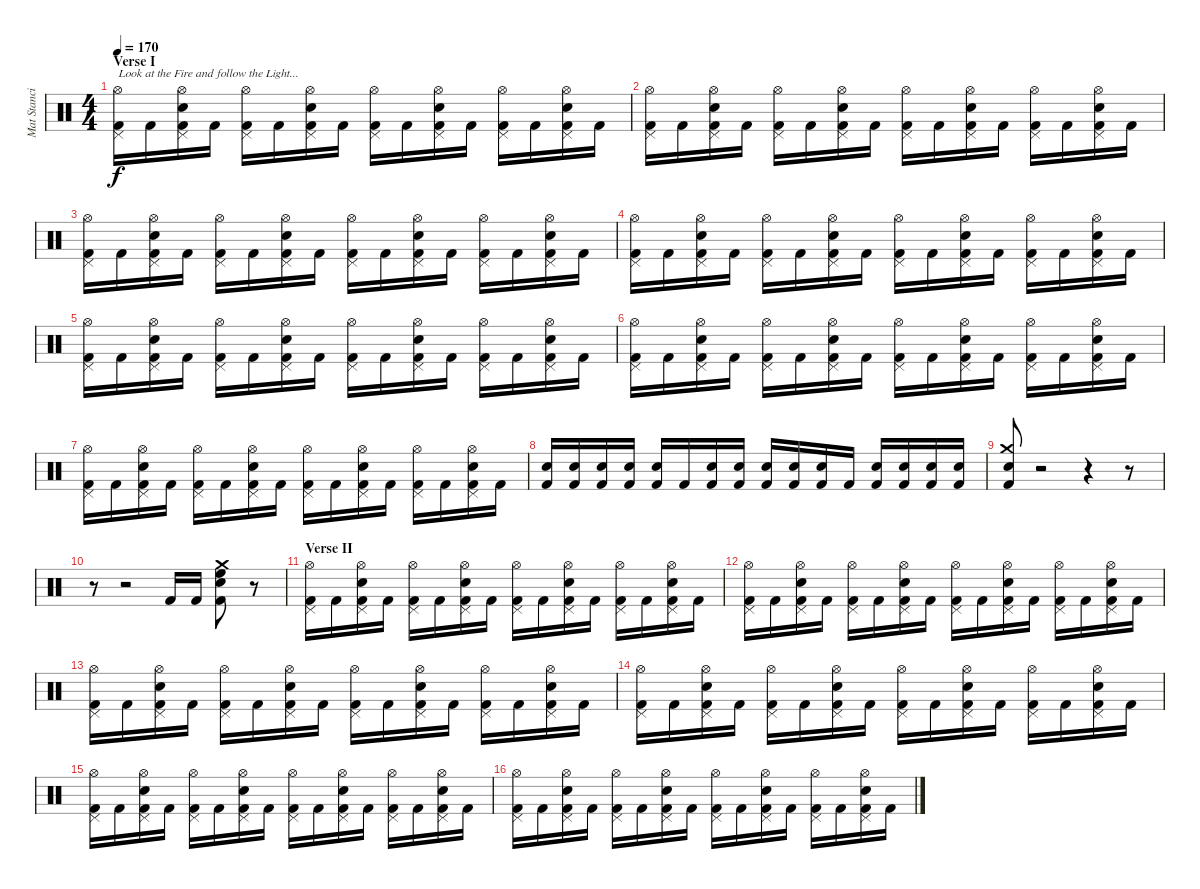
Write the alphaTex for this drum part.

\track ("Mat Stancioiu" "Mat Stanci") {instrument percussion}
\staff {score}
\articulation defaults
\ts (4 4)
\section ("" "Verse I")
\tempo 170
\clef neutral
\ks c
("Hi-Hat (open)" "Kick (hit) 2" "Pedal Hi-Hat (hit)").16{txt "Look at the Fire and follow the Light..." dy f} "Kick (hit) 2".16 ("Electric Snare (hit)" "Hi-Hat (open)" "Kick (hit) 2" "Pedal Hi-Hat (hit)").16 "Kick (hit) 2".16 ("Hi-Hat (open)" "Kick (hit) 2" "Pedal Hi-Hat (hit)").16 "Kick (hit) 2".16 ("Electric Snare (hit)" "Hi-Hat (open)" "Kick (hit) 2" "Pedal Hi-Hat (hit)").16 "Kick (hit) 2".16 ("Hi-Hat (open)" "Kick (hit) 2" "Pedal Hi-Hat (hit)").16 "Kick (hit) 2".16 ("Electric Snare (hit)" "Hi-Hat (open)" "Kick (hit) 2" "Pedal Hi-Hat (hit)").16 "Kick (hit) 2".16 ("Hi-Hat (open)" "Kick (hit) 2" "Pedal Hi-Hat (hit)").16 "Kick (hit) 2".16 ("Electric Snare (hit)" "Hi-Hat (open)" "Kick (hit) 2" "Pedal Hi-Hat (hit)").16 "Kick (hit) 2".16 |
("Hi-Hat (open)" "Kick (hit) 2" "Pedal Hi-Hat (hit)").16 "Kick (hit) 2".16 ("Electric Snare (hit)" "Hi-Hat (open)" "Kick (hit) 2" "Pedal Hi-Hat (hit)").16 "Kick (hit) 2".16 ("Hi-Hat (open)" "Kick (hit) 2" "Pedal Hi-Hat (hit)").16 "Kick (hit) 2".16 ("Electric Snare (hit)" "Hi-Hat (open)" "Kick (hit) 2" "Pedal Hi-Hat (hit)").16 "Kick (hit) 2".16 ("Hi-Hat (open)" "Kick (hit) 2" "Pedal Hi-Hat (hit)").16 "Kick (hit) 2".16 ("Electric Snare (hit)" "Hi-Hat (open)" "Kick (hit) 2" "Pedal Hi-Hat (hit)").16 "Kick (hit) 2".16 ("Hi-Hat (open)" "Kick (hit) 2" "Pedal Hi-Hat (hit)").16 "Kick (hit) 2".16 ("Electric Snare (hit)" "Hi-Hat (open)" "Kick (hit) 2" "Pedal Hi-Hat (hit)").16 "Kick (hit) 2".16 |
("Hi-Hat (open)" "Kick (hit) 2" "Pedal Hi-Hat (hit)").16 "Kick (hit) 2".16 ("Electric Snare (hit)" "Hi-Hat (open)" "Kick (hit) 2" "Pedal Hi-Hat (hit)").16 "Kick (hit) 2".16 ("Hi-Hat (open)" "Kick (hit) 2" "Pedal Hi-Hat (hit)").16 "Kick (hit) 2".16 ("Electric Snare (hit)" "Hi-Hat (open)" "Kick (hit) 2" "Pedal Hi-Hat (hit)").16 "Kick (hit) 2".16 ("Hi-Hat (open)" "Kick (hit) 2" "Pedal Hi-Hat (hit)").16 "Kick (hit) 2".16 ("Electric Snare (hit)" "Hi-Hat (open)" "Kick (hit) 2" "Pedal Hi-Hat (hit)").16 "Kick (hit) 2".16 ("Hi-Hat (open)" "Kick (hit) 2" "Pedal Hi-Hat (hit)").16 "Kick (hit) 2".16 ("Electric Snare (hit)" "Hi-Hat (open)" "Kick (hit) 2" "Pedal Hi-Hat (hit)").16 "Kick (hit) 2".16 |
("Hi-Hat (open)" "Kick (hit) 2" "Pedal Hi-Hat (hit)").16 "Kick (hit) 2".16 ("Electric Snare (hit)" "Hi-Hat (open)" "Kick (hit) 2" "Pedal Hi-Hat (hit)").16 "Kick (hit) 2".16 ("Hi-Hat (open)" "Kick (hit) 2" "Pedal Hi-Hat (hit)").16 "Kick (hit) 2".16 ("Electric Snare (hit)" "Hi-Hat (open)" "Kick (hit) 2" "Pedal Hi-Hat (hit)").16 "Kick (hit) 2".16 ("Hi-Hat (open)" "Kick (hit) 2" "Pedal Hi-Hat (hit)").16 "Kick (hit) 2".16 ("Electric Snare (hit)" "Hi-Hat (open)" "Kick (hit) 2" "Pedal Hi-Hat (hit)").16 "Kick (hit) 2".16 ("Hi-Hat (open)" "Kick (hit) 2" "Pedal Hi-Hat (hit)").16 "Kick (hit) 2".16 ("Electric Snare (hit)" "Hi-Hat (open)" "Kick (hit) 2" "Pedal Hi-Hat (hit)").16 "Kick (hit) 2".16 |
("Hi-Hat (open)" "Kick (hit) 2" "Pedal Hi-Hat (hit)").16 "Kick (hit) 2".16 ("Electric Snare (hit)" "Hi-Hat (open)" "Kick (hit) 2" "Pedal Hi-Hat (hit)").16 "Kick (hit) 2".16 ("Hi-Hat (open)" "Kick (hit) 2" "Pedal Hi-Hat (hit)").16 "Kick (hit) 2".16 ("Electric Snare (hit)" "Hi-Hat (open)" "Kick (hit) 2" "Pedal Hi-Hat (hit)").16 "Kick (hit) 2".16 ("Hi-Hat (open)" "Kick (hit) 2" "Pedal Hi-Hat (hit)").16 "Kick (hit) 2".16 ("Electric Snare (hit)" "Hi-Hat (open)" "Kick (hit) 2" "Pedal Hi-Hat (hit)").16 "Kick (hit) 2".16 ("Hi-Hat (open)" "Kick (hit) 2" "Pedal Hi-Hat (hit)").16 "Kick (hit) 2".16 ("Electric Snare (hit)" "Hi-Hat (open)" "Kick (hit) 2" "Pedal Hi-Hat (hit)").16 "Kick (hit) 2".16 |
("Hi-Hat (open)" "Kick (hit) 2" "Pedal Hi-Hat (hit)").16 "Kick (hit) 2".16 ("Electric Snare (hit)" "Hi-Hat (open)" "Kick (hit) 2" "Pedal Hi-Hat (hit)").16 "Kick (hit) 2".16 ("Hi-Hat (open)" "Kick (hit) 2" "Pedal Hi-Hat (hit)").16 "Kick (hit) 2".16 ("Electric Snare (hit)" "Hi-Hat (open)" "Kick (hit) 2" "Pedal Hi-Hat (hit)").16 "Kick (hit) 2".16 ("Hi-Hat (open)" "Kick (hit) 2" "Pedal Hi-Hat (hit)").16 "Kick (hit) 2".16 ("Electric Snare (hit)" "Hi-Hat (open)" "Kick (hit) 2" "Pedal Hi-Hat (hit)").16 "Kick (hit) 2".16 ("Hi-Hat (open)" "Kick (hit) 2" "Pedal Hi-Hat (hit)").16 "Kick (hit) 2".16 ("Electric Snare (hit)" "Hi-Hat (open)" "Kick (hit) 2" "Pedal Hi-Hat (hit)").16 "Kick (hit) 2".16 |
("Hi-Hat (open)" "Kick (hit) 2" "Pedal Hi-Hat (hit)").16 "Kick (hit) 2".16 ("Electric Snare (hit)" "Hi-Hat (open)" "Kick (hit) 2" "Pedal Hi-Hat (hit)").16 "Kick (hit) 2".16 ("Hi-Hat (open)" "Kick (hit) 2" "Pedal Hi-Hat (hit)").16 "Kick (hit) 2".16 ("Electric Snare (hit)" "Hi-Hat (open)" "Kick (hit) 2" "Pedal Hi-Hat (hit)").16 "Kick (hit) 2".16 ("Hi-Hat (open)" "Kick (hit) 2" "Pedal Hi-Hat (hit)").16 "Kick (hit) 2".16 ("Electric Snare (hit)" "Hi-Hat (open)" "Kick (hit) 2" "Pedal Hi-Hat (hit)").16 "Kick (hit) 2".16 ("Hi-Hat (open)" "Kick (hit) 2" "Pedal Hi-Hat (hit)").16 "Kick (hit) 2".16 ("Electric Snare (hit)" "Hi-Hat (open)" "Kick (hit) 2" "Pedal Hi-Hat (hit)").16 "Kick (hit) 2".16 |
("Electric Snare (hit)" "Kick (hit) 2").16 ("Electric Snare (hit)" "Kick (hit) 2").16 ("Electric Snare (hit)" "Kick (hit) 2").16 ("Electric Snare (hit)" "Kick (hit) 2").16 ("Electric Snare (hit)" "Kick (hit) 2").16 "Kick (hit) 2".16 ("Electric Snare (hit)" "Kick (hit) 2").16 ("Electric Snare (hit)" "Kick (hit) 2").16 ("Electric Snare (hit)" "Kick (hit) 2").16 ("Electric Snare (hit)" "Kick (hit) 2").16 ("Electric Snare (hit)" "Kick (hit) 2").16 "Kick (hit) 2".16 ("Electric Snare (hit)" "Kick (hit) 2").16 ("Electric Snare (hit)" "Kick (hit) 2").16 ("Electric Snare (hit)" "Kick (hit) 2").16 ("Electric Snare (hit)" "Kick (hit) 2").16 |
("Crash medium (hit)" "Kick (hit) 2" "Snare (hit)").8 r.2 r.4 r.8 |
r.8 r.2 "Kick (hit) 2".16 "Kick (hit) 2".16 ("Electric Snare (hit)" "High Floor Tom (hit)" "Kick (hit) 2" "Crash medium (hit)").8 r.8 |
\section ("" "Verse II")
("Hi-Hat (open)" "Kick (hit) 2" "Pedal Hi-Hat (hit)").16 "Kick (hit) 2".16 ("Electric Snare (hit)" "Hi-Hat (open)" "Kick (hit) 2" "Pedal Hi-Hat (hit)").16 "Kick (hit) 2".16 ("Hi-Hat (open)" "Kick (hit) 2" "Pedal Hi-Hat (hit)").16 "Kick (hit) 2".16 ("Electric Snare (hit)" "Hi-Hat (open)" "Kick (hit) 2" "Pedal Hi-Hat (hit)").16 "Kick (hit) 2".16 ("Hi-Hat (open)" "Kick (hit) 2" "Pedal Hi-Hat (hit)").16 "Kick (hit) 2".16 ("Electric Snare (hit)" "Hi-Hat (open)" "Kick (hit) 2" "Pedal Hi-Hat (hit)").16 "Kick (hit) 2".16 ("Hi-Hat (open)" "Kick (hit) 2" "Pedal Hi-Hat (hit)").16 "Kick (hit) 2".16 ("Electric Snare (hit)" "Hi-Hat (open)" "Kick (hit) 2" "Pedal Hi-Hat (hit)").16 "Kick (hit) 2".16 |
("Hi-Hat (open)" "Kick (hit) 2" "Pedal Hi-Hat (hit)").16 "Kick (hit) 2".16 ("Electric Snare (hit)" "Hi-Hat (open)" "Kick (hit) 2" "Pedal Hi-Hat (hit)").16 "Kick (hit) 2".16 ("Hi-Hat (open)" "Kick (hit) 2" "Pedal Hi-Hat (hit)").16 "Kick (hit) 2".16 ("Electric Snare (hit)" "Hi-Hat (open)" "Kick (hit) 2" "Pedal Hi-Hat (hit)").16 "Kick (hit) 2".16 ("Hi-Hat (open)" "Kick (hit) 2" "Pedal Hi-Hat (hit)").16 "Kick (hit) 2".16 ("Electric Snare (hit)" "Hi-Hat (open)" "Kick (hit) 2" "Pedal Hi-Hat (hit)").16 "Kick (hit) 2".16 ("Hi-Hat (open)" "Kick (hit) 2" "Pedal Hi-Hat (hit)").16 "Kick (hit) 2".16 ("Electric Snare (hit)" "Hi-Hat (open)" "Kick (hit) 2" "Pedal Hi-Hat (hit)").16 "Kick (hit) 2".16 |
("Hi-Hat (open)" "Kick (hit) 2" "Pedal Hi-Hat (hit)").16 "Kick (hit) 2".16 ("Electric Snare (hit)" "Hi-Hat (open)" "Kick (hit) 2" "Pedal Hi-Hat (hit)").16 "Kick (hit) 2".16 ("Hi-Hat (open)" "Kick (hit) 2" "Pedal Hi-Hat (hit)").16 "Kick (hit) 2".16 ("Electric Snare (hit)" "Hi-Hat (open)" "Kick (hit) 2" "Pedal Hi-Hat (hit)").16 "Kick (hit) 2".16 ("Hi-Hat (open)" "Kick (hit) 2" "Pedal Hi-Hat (hit)").16 "Kick (hit) 2".16 ("Electric Snare (hit)" "Hi-Hat (open)" "Kick (hit) 2" "Pedal Hi-Hat (hit)").16 "Kick (hit) 2".16 ("Hi-Hat (open)" "Kick (hit) 2" "Pedal Hi-Hat (hit)").16 "Kick (hit) 2".16 ("Electric Snare (hit)" "Hi-Hat (open)" "Kick (hit) 2" "Pedal Hi-Hat (hit)").16 "Kick (hit) 2".16 |
("Hi-Hat (open)" "Kick (hit) 2" "Pedal Hi-Hat (hit)").16 "Kick (hit) 2".16 ("Electric Snare (hit)" "Hi-Hat (open)" "Kick (hit) 2" "Pedal Hi-Hat (hit)").16 "Kick (hit) 2".16 ("Hi-Hat (open)" "Kick (hit) 2" "Pedal Hi-Hat (hit)").16 "Kick (hit) 2".16 ("Electric Snare (hit)" "Hi-Hat (open)" "Kick (hit) 2" "Pedal Hi-Hat (hit)").16 "Kick (hit) 2".16 ("Hi-Hat (open)" "Kick (hit) 2" "Pedal Hi-Hat (hit)").16 "Kick (hit) 2".16 ("Electric Snare (hit)" "Hi-Hat (open)" "Kick (hit) 2" "Pedal Hi-Hat (hit)").16 "Kick (hit) 2".16 ("Hi-Hat (open)" "Kick (hit) 2" "Pedal Hi-Hat (hit)").16 "Kick (hit) 2".16 ("Electric Snare (hit)" "Hi-Hat (open)" "Kick (hit) 2" "Pedal Hi-Hat (hit)").16 "Kick (hit) 2".16 |
("Hi-Hat (open)" "Kick (hit) 2" "Pedal Hi-Hat (hit)").16 "Kick (hit) 2".16 ("Electric Snare (hit)" "Hi-Hat (open)" "Kick (hit) 2" "Pedal Hi-Hat (hit)").16 "Kick (hit) 2".16 ("Hi-Hat (open)" "Kick (hit) 2" "Pedal Hi-Hat (hit)").16 "Kick (hit) 2".16 ("Electric Snare (hit)" "Hi-Hat (open)" "Kick (hit) 2" "Pedal Hi-Hat (hit)").16 "Kick (hit) 2".16 ("Hi-Hat (open)" "Kick (hit) 2" "Pedal Hi-Hat (hit)").16 "Kick (hit) 2".16 ("Electric Snare (hit)" "Hi-Hat (open)" "Kick (hit) 2" "Pedal Hi-Hat (hit)").16 "Kick (hit) 2".16 ("Hi-Hat (open)" "Kick (hit) 2" "Pedal Hi-Hat (hit)").16 "Kick (hit) 2".16 ("Electric Snare (hit)" "Hi-Hat (open)" "Kick (hit) 2" "Pedal Hi-Hat (hit)").16 "Kick (hit) 2".16 |
("Hi-Hat (open)" "Kick (hit) 2" "Pedal Hi-Hat (hit)").16 "Kick (hit) 2".16 ("Electric Snare (hit)" "Hi-Hat (open)" "Kick (hit) 2" "Pedal Hi-Hat (hit)").16 "Kick (hit) 2".16 ("Hi-Hat (open)" "Kick (hit) 2" "Pedal Hi-Hat (hit)").16 "Kick (hit) 2".16 ("Electric Snare (hit)" "Hi-Hat (open)" "Kick (hit) 2" "Pedal Hi-Hat (hit)").16 "Kick (hit) 2".16 ("Hi-Hat (open)" "Kick (hit) 2" "Pedal Hi-Hat (hit)").16 "Kick (hit) 2".16 ("Electric Snare (hit)" "Hi-Hat (open)" "Kick (hit) 2" "Pedal Hi-Hat (hit)").16 "Kick (hit) 2".16 ("Hi-Hat (open)" "Kick (hit) 2" "Pedal Hi-Hat (hit)").16 "Kick (hit) 2".16 ("Electric Snare (hit)" "Hi-Hat (open)" "Kick (hit) 2" "Pedal Hi-Hat (hit)").16 "Kick (hit) 2".16
